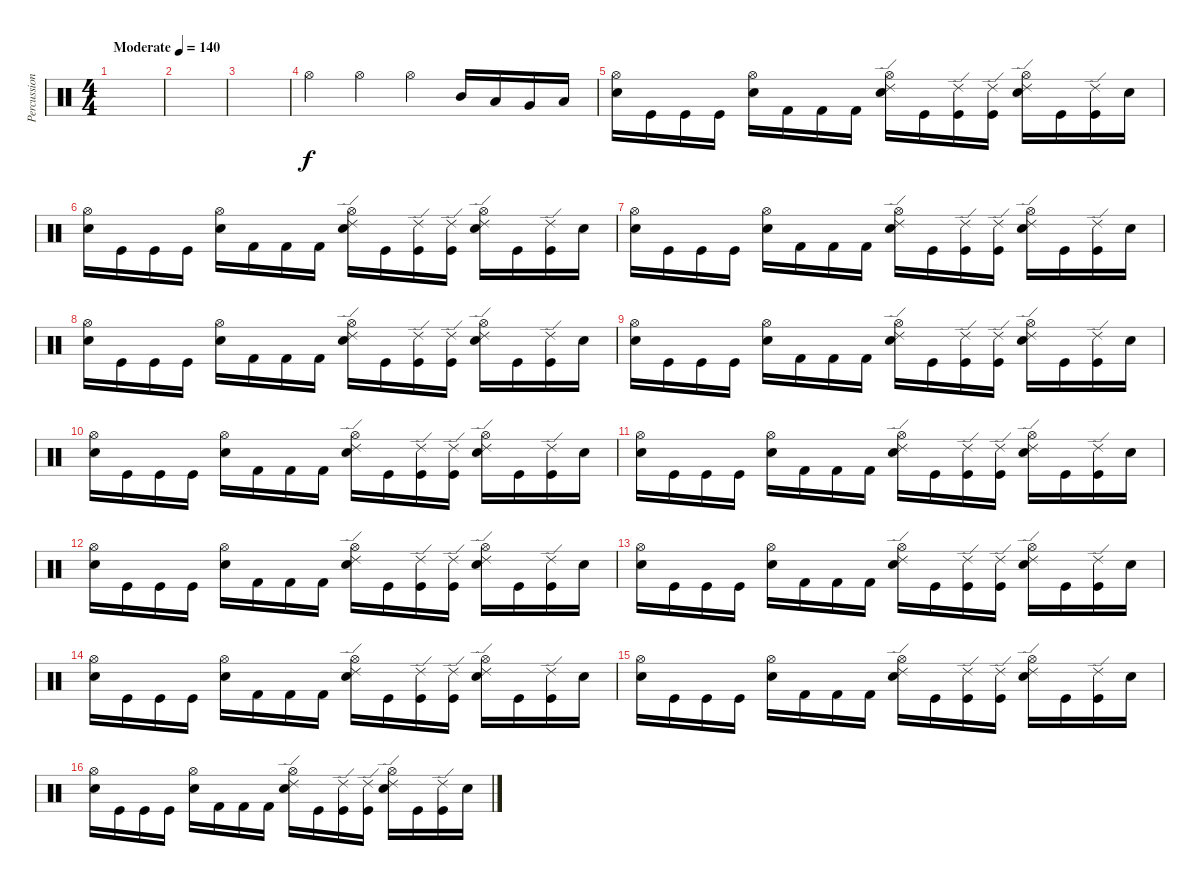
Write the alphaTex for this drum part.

\track ("Percussion" "Percussion") {instrument percussion}
\staff {score}
\articulation defaults
\ts (4 4)
\tempo (140 "Moderate")
\clef neutral
\ks c
|
|
|
"Hi-Hat (open)".4 "Hi-Hat (open)".4 "Hi-Hat (open)".4 "Mid Tom (hit)".16 "Low Tom (hit)".16 "Very Low Tom (hit)".16 "Low Floor Tom (hit)".16 |
("Hi-Hat (open)" "Snare (hit) 2").16 "Kick (hit)".16 "Kick (hit)".16 "Kick (hit)".16 ("Hi-Hat (open)" "Snare (hit) 2").16 "Kick (hit) 2".16 "Kick (hit) 2".16 "Kick (hit) 2".16 ("Hi-Hat (open)" "Snare (hit) 2" "Ride (edge) 2").16 "Kick (hit)".16 ("Kick (hit)" "Ride (edge) 2").16 ("Kick (hit)" "Ride (edge) 2").16 ("Hi-Hat (open)" "Snare (hit) 2" "Ride (edge) 2").16 "Kick (hit)".16 ("Kick (hit)" "Ride (edge) 2").16 "Snare (hit) 2".16 |
("Hi-Hat (open)" "Snare (hit) 2").16 "Kick (hit)".16 "Kick (hit)".16 "Kick (hit)".16 ("Hi-Hat (open)" "Snare (hit) 2").16 "Kick (hit) 2".16 "Kick (hit) 2".16 "Kick (hit) 2".16 ("Hi-Hat (open)" "Snare (hit) 2" "Ride (edge) 2").16 "Kick (hit)".16 ("Kick (hit)" "Ride (edge) 2").16 ("Kick (hit)" "Ride (edge) 2").16 ("Hi-Hat (open)" "Snare (hit) 2" "Ride (edge) 2").16 "Kick (hit)".16 ("Kick (hit)" "Ride (edge) 2").16 "Snare (hit) 2".16 |
("Hi-Hat (open)" "Snare (hit) 2").16 "Kick (hit)".16 "Kick (hit)".16 "Kick (hit)".16 ("Hi-Hat (open)" "Snare (hit) 2").16 "Kick (hit) 2".16 "Kick (hit) 2".16 "Kick (hit) 2".16 ("Hi-Hat (open)" "Snare (hit) 2" "Ride (edge) 2").16 "Kick (hit)".16 ("Kick (hit)" "Ride (edge) 2").16 ("Kick (hit)" "Ride (edge) 2").16 ("Hi-Hat (open)" "Snare (hit) 2" "Ride (edge) 2").16 "Kick (hit)".16 ("Kick (hit)" "Ride (edge) 2").16 "Snare (hit) 2".16 |
("Hi-Hat (open)" "Snare (hit) 2").16 "Kick (hit)".16 "Kick (hit)".16 "Kick (hit)".16 ("Hi-Hat (open)" "Snare (hit) 2").16 "Kick (hit) 2".16 "Kick (hit) 2".16 "Kick (hit) 2".16 ("Hi-Hat (open)" "Snare (hit) 2" "Ride (edge) 2").16 "Kick (hit)".16 ("Kick (hit)" "Ride (edge) 2").16 ("Kick (hit)" "Ride (edge) 2").16 ("Hi-Hat (open)" "Snare (hit) 2" "Ride (edge) 2").16 "Kick (hit)".16 ("Kick (hit)" "Ride (edge) 2").16 "Snare (hit) 2".16 |
("Hi-Hat (open)" "Snare (hit) 2").16 "Kick (hit)".16 "Kick (hit)".16 "Kick (hit)".16 ("Hi-Hat (open)" "Snare (hit) 2").16 "Kick (hit) 2".16 "Kick (hit) 2".16 "Kick (hit) 2".16 ("Hi-Hat (open)" "Snare (hit) 2" "Ride (edge) 2").16 "Kick (hit)".16 ("Kick (hit)" "Ride (edge) 2").16 ("Kick (hit)" "Ride (edge) 2").16 ("Hi-Hat (open)" "Snare (hit) 2" "Ride (edge) 2").16 "Kick (hit)".16 ("Kick (hit)" "Ride (edge) 2").16 "Snare (hit) 2".16 |
("Hi-Hat (open)" "Snare (hit) 2").16 "Kick (hit)".16 "Kick (hit)".16 "Kick (hit)".16 ("Hi-Hat (open)" "Snare (hit) 2").16 "Kick (hit) 2".16 "Kick (hit) 2".16 "Kick (hit) 2".16 ("Hi-Hat (open)" "Snare (hit) 2" "Ride (edge) 2").16 "Kick (hit)".16 ("Kick (hit)" "Ride (edge) 2").16 ("Kick (hit)" "Ride (edge) 2").16 ("Hi-Hat (open)" "Snare (hit) 2" "Ride (edge) 2").16 "Kick (hit)".16 ("Kick (hit)" "Ride (edge) 2").16 "Snare (hit) 2".16 |
("Hi-Hat (open)" "Snare (hit) 2").16 "Kick (hit)".16 "Kick (hit)".16 "Kick (hit)".16 ("Hi-Hat (open)" "Snare (hit) 2").16 "Kick (hit) 2".16 "Kick (hit) 2".16 "Kick (hit) 2".16 ("Hi-Hat (open)" "Snare (hit) 2" "Ride (edge) 2").16 "Kick (hit)".16 ("Kick (hit)" "Ride (edge) 2").16 ("Kick (hit)" "Ride (edge) 2").16 ("Hi-Hat (open)" "Snare (hit) 2" "Ride (edge) 2").16 "Kick (hit)".16 ("Kick (hit)" "Ride (edge) 2").16 "Snare (hit) 2".16 |
("Hi-Hat (open)" "Snare (hit) 2").16 "Kick (hit)".16 "Kick (hit)".16 "Kick (hit)".16 ("Hi-Hat (open)" "Snare (hit) 2").16 "Kick (hit) 2".16 "Kick (hit) 2".16 "Kick (hit) 2".16 ("Hi-Hat (open)" "Snare (hit) 2" "Ride (edge) 2").16 "Kick (hit)".16 ("Kick (hit)" "Ride (edge) 2").16 ("Kick (hit)" "Ride (edge) 2").16 ("Hi-Hat (open)" "Snare (hit) 2" "Ride (edge) 2").16 "Kick (hit)".16 ("Kick (hit)" "Ride (edge) 2").16 "Snare (hit) 2".16 |
("Hi-Hat (open)" "Snare (hit) 2").16 "Kick (hit)".16 "Kick (hit)".16 "Kick (hit)".16 ("Hi-Hat (open)" "Snare (hit) 2").16 "Kick (hit) 2".16 "Kick (hit) 2".16 "Kick (hit) 2".16 ("Hi-Hat (open)" "Snare (hit) 2" "Ride (edge) 2").16 "Kick (hit)".16 ("Kick (hit)" "Ride (edge) 2").16 ("Kick (hit)" "Ride (edge) 2").16 ("Hi-Hat (open)" "Snare (hit) 2" "Ride (edge) 2").16 "Kick (hit)".16 ("Kick (hit)" "Ride (edge) 2").16 "Snare (hit) 2".16 |
("Hi-Hat (open)" "Snare (hit) 2").16 "Kick (hit)".16 "Kick (hit)".16 "Kick (hit)".16 ("Hi-Hat (open)" "Snare (hit) 2").16 "Kick (hit) 2".16 "Kick (hit) 2".16 "Kick (hit) 2".16 ("Hi-Hat (open)" "Snare (hit) 2" "Ride (edge) 2").16 "Kick (hit)".16 ("Kick (hit)" "Ride (edge) 2").16 ("Kick (hit)" "Ride (edge) 2").16 ("Hi-Hat (open)" "Snare (hit) 2" "Ride (edge) 2").16 "Kick (hit)".16 ("Kick (hit)" "Ride (edge) 2").16 "Snare (hit) 2".16 |
("Hi-Hat (open)" "Snare (hit) 2").16 "Kick (hit)".16 "Kick (hit)".16 "Kick (hit)".16 ("Hi-Hat (open)" "Snare (hit) 2").16 "Kick (hit) 2".16 "Kick (hit) 2".16 "Kick (hit) 2".16 ("Hi-Hat (open)" "Snare (hit) 2" "Ride (edge) 2").16 "Kick (hit)".16 ("Kick (hit)" "Ride (edge) 2").16 ("Kick (hit)" "Ride (edge) 2").16 ("Hi-Hat (open)" "Snare (hit) 2" "Ride (edge) 2").16 "Kick (hit)".16 ("Kick (hit)" "Ride (edge) 2").16 "Snare (hit) 2".16 |
("Hi-Hat (open)" "Snare (hit) 2").16 "Kick (hit)".16 "Kick (hit)".16 "Kick (hit)".16 ("Hi-Hat (open)" "Snare (hit) 2").16 "Kick (hit) 2".16 "Kick (hit) 2".16 "Kick (hit) 2".16 ("Hi-Hat (open)" "Snare (hit) 2" "Ride (edge) 2").16 "Kick (hit)".16 ("Kick (hit)" "Ride (edge) 2").16 ("Kick (hit)" "Ride (edge) 2").16 ("Hi-Hat (open)" "Snare (hit) 2" "Ride (edge) 2").16 "Kick (hit)".16 ("Kick (hit)" "Ride (edge) 2").16 "Snare (hit) 2".16
